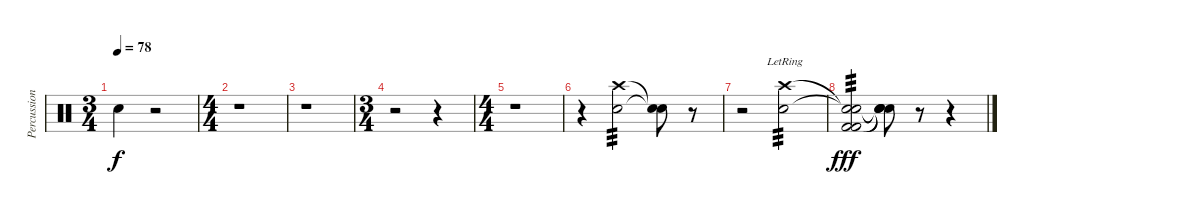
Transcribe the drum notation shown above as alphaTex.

\track ("Percussion" "Percussion") {instrument percussion}
\staff {score}
\articulation defaults
\ts (3 4)
\tempo 78
\clef neutral
\ks c "Snare (hit)"{t}.4{dy f}
r.2 |
\ts (4 4)
r.1 |
r.1 |
\ts (3 4)
r.2 r.4 |
\ts (4 4)
r.1 |
r.4 ("Crash high (hit)" "Snare (hit) 2").2{tp 3} ("Snare (hit)"{t} "Snare (hit)"{t}).8 r.8 |
r.2 ("Crash high (hit)"{lr} "Snare (hit) 2").2{tp 3} |
("Snare (hit)"{t} "Snare (hit)"{t} "Kick (hit) 2" "Kick (hit) 2").2{tp 3 dy fff} ("Snare (hit)"{t} "Snare (hit)"{t} "Snare (hit)"{t} "Snare (hit)"{t}).8 r.8 r.4
